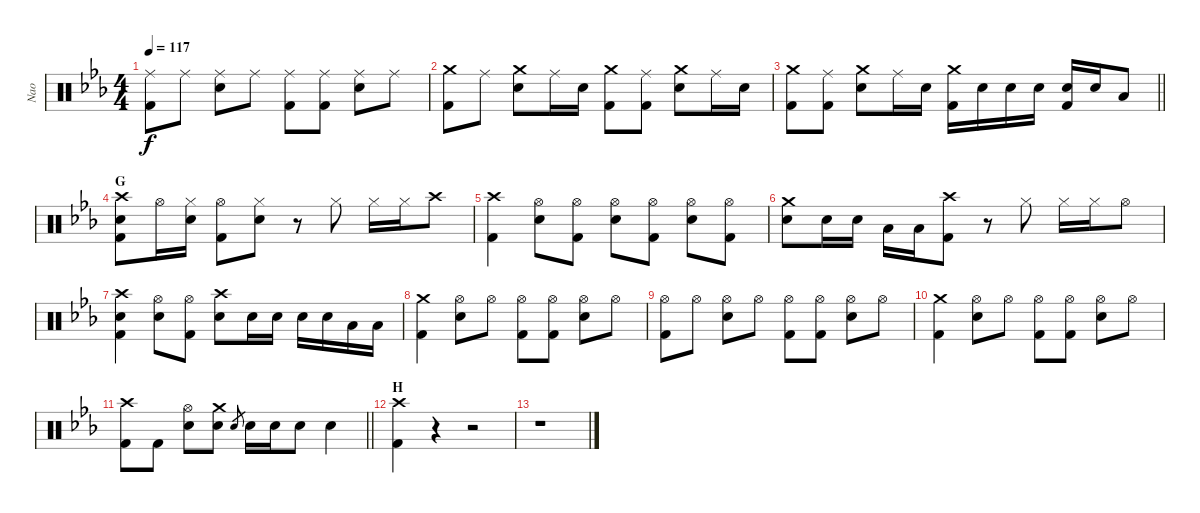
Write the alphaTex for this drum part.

\track ("Nao" "Nao") {instrument percussion}
\staff {score}
\articulation defaults
\ts (4 4)
\tempo 117
\clef neutral
\ks eb
("Ride (middle)" "Kick (hit) 2").8{dy f} "Ride (middle)".8 ("Ride (middle)" "Snare (hit) 2").8 "Ride (middle)".8 ("Ride (middle)" "Kick (hit) 2").8 ("Ride (middle)" "Kick (hit) 2").8 ("Ride (middle)" "Snare (hit) 2").8 "Ride (middle)".8 |
("Crash medium (hit)" "Kick (hit) 2").8 "Ride (middle)".8 ("Crash medium (hit)" "Snare (hit) 2").8 "Ride (middle)".16 "Snare (hit) 2".16 ("Crash medium (hit)" "Kick (hit) 2").8 ("Ride (middle)" "Kick (hit) 2").8 ("Crash medium (hit)" "Snare (hit) 2").8 "Ride (middle)".16 "Snare (hit) 2".16 |
\barLineRight lightlight
("Crash medium (hit)" "Kick (hit) 2").8 ("Ride (middle)" "Kick (hit) 2").8 ("Crash medium (hit)" "Snare (hit) 2").8 "Ride (middle)".16 "Snare (hit) 2".16 ("Crash medium (hit)" "Kick (hit) 2").16 "Snare (hit) 2".16 "Snare (hit) 2".16 "Snare (hit) 2".16 ("Snare (hit) 2" "Kick (hit) 2").16 "Snare (hit) 2".16 "Low Tom (hit)".8 |
\section ("" "G")
("Crash high (hit)" "Snare (hit) 2" "Kick (hit) 2").8 "Hi-Hat (open)".16 ("Hi-Hat (closed)" "Snare (hit) 2").16 ("Hi-Hat (open)" "Kick (hit) 2").8 ("Hi-Hat (closed)" "Snare (hit) 2").8 r.8 "Hi-Hat (closed)".8 "Hi-Hat (closed)".16 "Hi-Hat (closed)".16 "Crash high (hit)".8 |
("Crash high (hit)" "Kick (hit) 2").4 ("Hi-Hat (open)" "Snare (hit) 2").8 ("Hi-Hat (open)" "Kick (hit) 2").8 ("Hi-Hat (open)" "Snare (hit) 2").8 ("Hi-Hat (open)" "Kick (hit) 2").8 ("Hi-Hat (open)" "Snare (hit) 2").8 ("Hi-Hat (open)" "Kick (hit) 2").8 |
("Crash medium (hit)" "Snare (hit) 2").8 "Snare (hit) 2".16 "Snare (hit) 2".16 "Low Tom (hit)".16 "Low Tom (hit)".16 ("Crash high (hit)" "Kick (hit) 2").8 r.8 "Hi-Hat (closed)".8 "Hi-Hat (closed)".16 "Hi-Hat (closed)".16 "Hi-Hat (open)".8 |
("Crash high (hit)" "Snare (hit) 2" "Kick (hit) 2").4 ("Hi-Hat (open)" "Snare (hit) 2").8 ("Hi-Hat (open)" "Kick (hit) 2").8 ("Crash high (hit)" "Snare (hit) 2").8 "Snare (hit) 2".16 "Snare (hit) 2".16 "Snare (hit) 2".16 "Snare (hit) 2".16 "Low Tom (hit)".16 "Low Tom (hit)".16 |
("Crash medium (hit)" "Kick (hit) 2").4 ("Hi-Hat (open)" "Snare (hit) 2").8 "Hi-Hat (open)".8 ("Hi-Hat (open)" "Kick (hit) 2").8 ("Hi-Hat (open)" "Kick (hit) 2").8 ("Hi-Hat (open)" "Snare (hit) 2").8 "Hi-Hat (open)".8 |
("Hi-Hat (open)" "Kick (hit) 2").8 "Hi-Hat (open)".8 ("Hi-Hat (open)" "Snare (hit) 2").8 "Hi-Hat (open)".8 ("Hi-Hat (open)" "Kick (hit) 2").8 ("Hi-Hat (open)" "Kick (hit) 2").8 ("Hi-Hat (open)" "Snare (hit) 2").8 "Hi-Hat (open)".8 |
("Crash medium (hit)" "Kick (hit) 2").4 ("Hi-Hat (open)" "Snare (hit) 2").8 "Hi-Hat (open)".8 ("Hi-Hat (open)" "Kick (hit) 2").8 ("Hi-Hat (open)" "Kick (hit) 2").8 ("Hi-Hat (open)" "Snare (hit) 2").8 "Hi-Hat (open)".8 |
\barLineRight lightlight
("Crash high (hit)" "Kick (hit) 2").8 "Kick (hit) 2".8 ("Hi-Hat (open)" "Snare (hit) 2").8 ("Crash medium (hit)" "Snare (hit) 2").8 "Snare (hit) 2".8{gr} "Snare (hit) 2".16 "Snare (hit) 2".16 "Snare (hit) 2".8 "Snare (hit) 2".4 |
\section ("" "H")
("Crash high (hit)" "Kick (hit) 2").4 r.4 r.2 |
r.1
